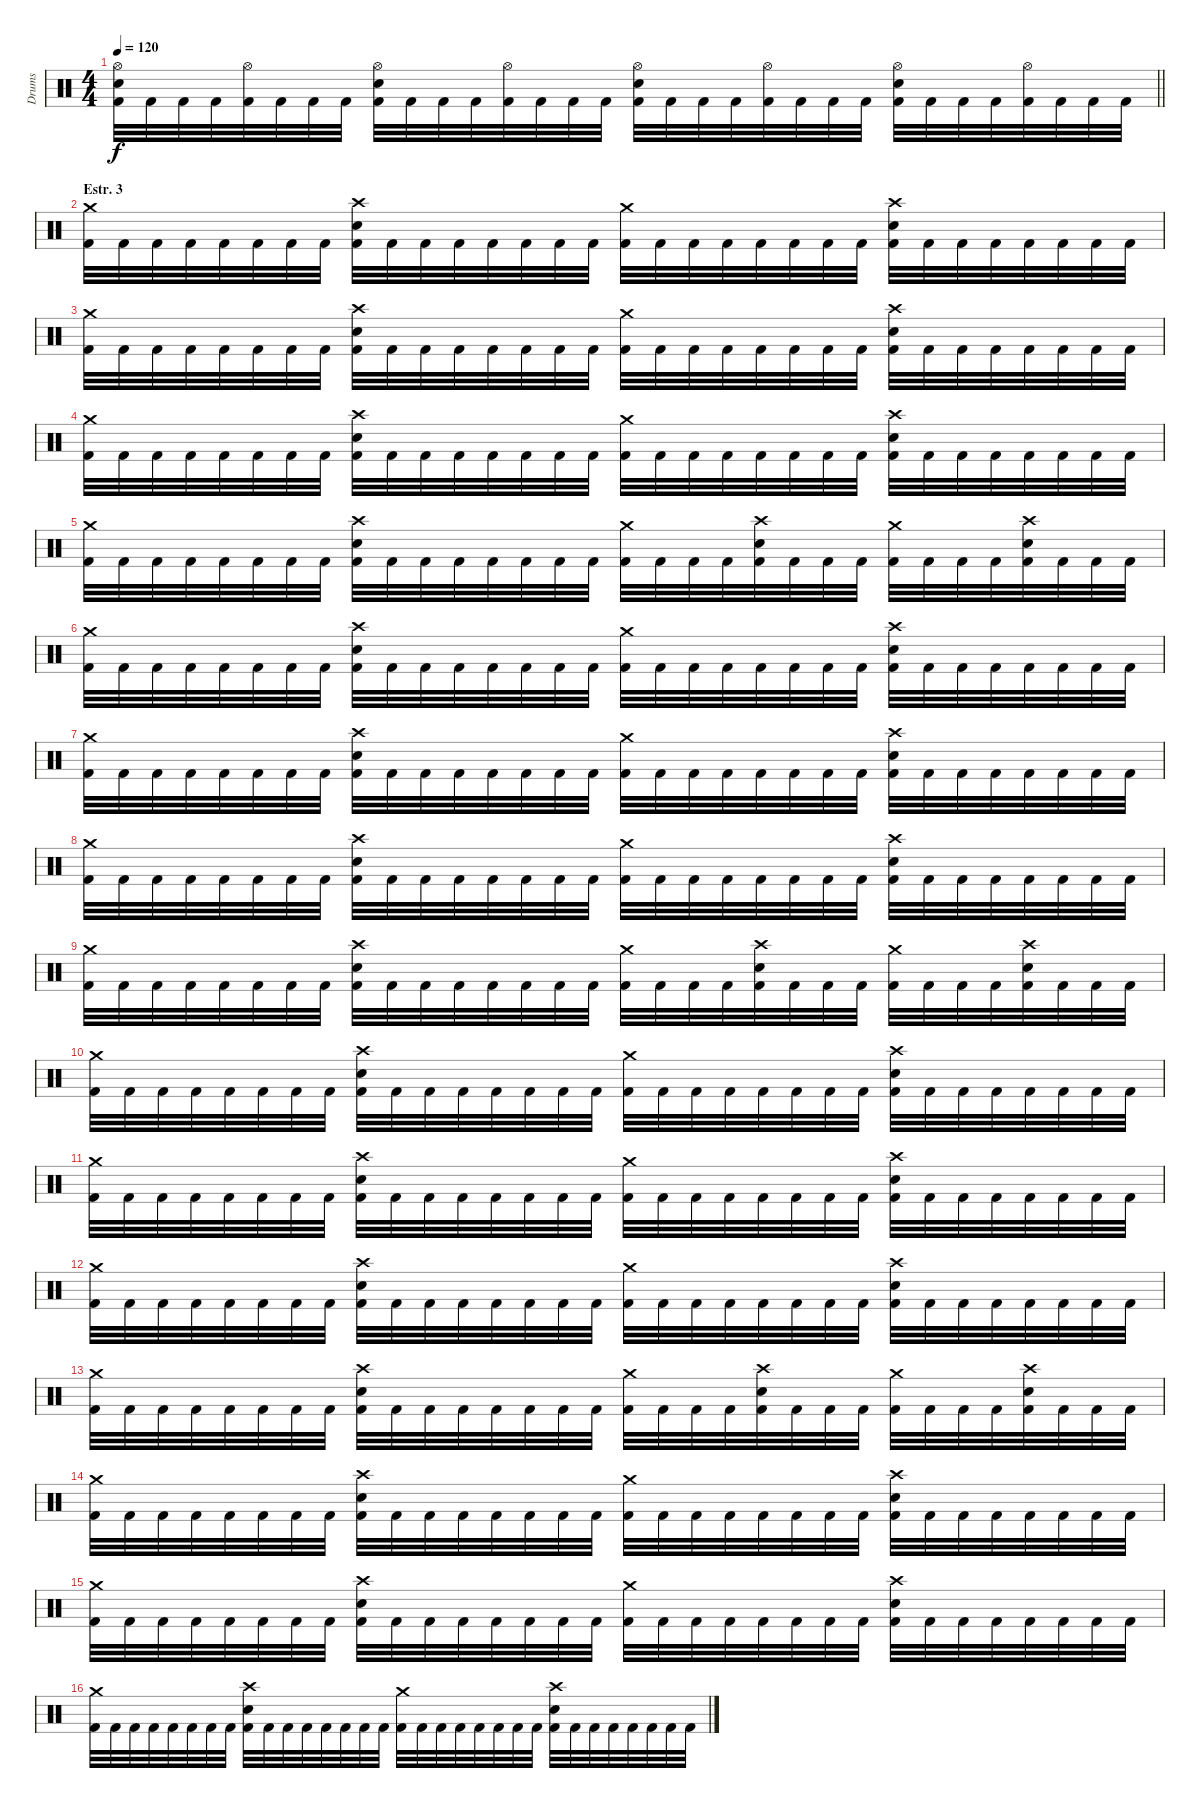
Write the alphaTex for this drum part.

\track ("Drums" "Drums") {instrument percussion}
\staff {score}
\articulation defaults
\ts (4 4)
\tempo 120
\clef neutral
\barLineRight lightlight
\ks c
("Kick (hit) 2" "Electric Snare (hit)" "Hi-Hat (open)").32{dy f} "Kick (hit) 2".32 "Kick (hit) 2".32 "Kick (hit) 2".32 ("Kick (hit) 2" "Hi-Hat (open)").32 "Kick (hit) 2".32 "Kick (hit) 2".32 "Kick (hit) 2".32 ("Kick (hit) 2" "Electric Snare (hit)" "Hi-Hat (open)").32 "Kick (hit) 2".32 "Kick (hit) 2".32 "Kick (hit) 2".32 ("Kick (hit) 2" "Hi-Hat (open)").32 "Kick (hit) 2".32 "Kick (hit) 2".32 "Kick (hit) 2".32 ("Kick (hit) 2" "Electric Snare (hit)" "Hi-Hat (open)").32 "Kick (hit) 2".32 "Kick (hit) 2".32 "Kick (hit) 2".32 ("Kick (hit) 2" "Hi-Hat (open)").32 "Kick (hit) 2".32 "Kick (hit) 2".32 "Kick (hit) 2".32 ("Kick (hit) 2" "Electric Snare (hit)" "Hi-Hat (open)").32 "Kick (hit) 2".32 "Kick (hit) 2".32 "Kick (hit) 2".32 ("Kick (hit) 2" "Hi-Hat (open)").32 "Kick (hit) 2".32 "Kick (hit) 2".32 "Kick (hit) 2".32 |
\section ("" "Estr. 3")
("Kick (hit) 2" "Crash medium (hit)").32 "Kick (hit) 2".32 "Kick (hit) 2".32 "Kick (hit) 2".32 "Kick (hit) 2".32 "Kick (hit) 2".32 "Kick (hit) 2".32 "Kick (hit) 2".32 ("Kick (hit) 2" "Electric Snare (hit)" "Crash high (hit)").32 "Kick (hit) 2".32 "Kick (hit) 2".32 "Kick (hit) 2".32 "Kick (hit) 2".32 "Kick (hit) 2".32 "Kick (hit) 2".32 "Kick (hit) 2".32 ("Kick (hit) 2" "Crash medium (hit)").32 "Kick (hit) 2".32 "Kick (hit) 2".32 "Kick (hit) 2".32 "Kick (hit) 2".32 "Kick (hit) 2".32 "Kick (hit) 2".32 "Kick (hit) 2".32 ("Kick (hit) 2" "Electric Snare (hit)" "Crash high (hit)").32 "Kick (hit) 2".32 "Kick (hit) 2".32 "Kick (hit) 2".32 "Kick (hit) 2".32 "Kick (hit) 2".32 "Kick (hit) 2".32 "Kick (hit) 2".32 |
("Kick (hit) 2" "Crash medium (hit)").32 "Kick (hit) 2".32 "Kick (hit) 2".32 "Kick (hit) 2".32 "Kick (hit) 2".32 "Kick (hit) 2".32 "Kick (hit) 2".32 "Kick (hit) 2".32 ("Kick (hit) 2" "Electric Snare (hit)" "Crash high (hit)").32 "Kick (hit) 2".32 "Kick (hit) 2".32 "Kick (hit) 2".32 "Kick (hit) 2".32 "Kick (hit) 2".32 "Kick (hit) 2".32 "Kick (hit) 2".32 ("Kick (hit) 2" "Crash medium (hit)").32 "Kick (hit) 2".32 "Kick (hit) 2".32 "Kick (hit) 2".32 "Kick (hit) 2".32 "Kick (hit) 2".32 "Kick (hit) 2".32 "Kick (hit) 2".32 ("Kick (hit) 2" "Electric Snare (hit)" "Crash high (hit)").32 "Kick (hit) 2".32 "Kick (hit) 2".32 "Kick (hit) 2".32 "Kick (hit) 2".32 "Kick (hit) 2".32 "Kick (hit) 2".32 "Kick (hit) 2".32 |
("Kick (hit) 2" "Crash medium (hit)").32 "Kick (hit) 2".32 "Kick (hit) 2".32 "Kick (hit) 2".32 "Kick (hit) 2".32 "Kick (hit) 2".32 "Kick (hit) 2".32 "Kick (hit) 2".32 ("Kick (hit) 2" "Electric Snare (hit)" "Crash high (hit)").32 "Kick (hit) 2".32 "Kick (hit) 2".32 "Kick (hit) 2".32 "Kick (hit) 2".32 "Kick (hit) 2".32 "Kick (hit) 2".32 "Kick (hit) 2".32 ("Kick (hit) 2" "Crash medium (hit)").32 "Kick (hit) 2".32 "Kick (hit) 2".32 "Kick (hit) 2".32 "Kick (hit) 2".32 "Kick (hit) 2".32 "Kick (hit) 2".32 "Kick (hit) 2".32 ("Kick (hit) 2" "Electric Snare (hit)" "Crash high (hit)").32 "Kick (hit) 2".32 "Kick (hit) 2".32 "Kick (hit) 2".32 "Kick (hit) 2".32 "Kick (hit) 2".32 "Kick (hit) 2".32 "Kick (hit) 2".32 |
("Kick (hit) 2" "Crash medium (hit)").32 "Kick (hit) 2".32 "Kick (hit) 2".32 "Kick (hit) 2".32 "Kick (hit) 2".32 "Kick (hit) 2".32 "Kick (hit) 2".32 "Kick (hit) 2".32 ("Kick (hit) 2" "Electric Snare (hit)" "Crash high (hit)").32 "Kick (hit) 2".32 "Kick (hit) 2".32 "Kick (hit) 2".32 "Kick (hit) 2".32 "Kick (hit) 2".32 "Kick (hit) 2".32 "Kick (hit) 2".32 ("Kick (hit) 2" "Crash medium (hit)").32 "Kick (hit) 2".32 "Kick (hit) 2".32 "Kick (hit) 2".32 ("Kick (hit) 2" "Electric Snare (hit)" "Crash high (hit)").32 "Kick (hit) 2".32 "Kick (hit) 2".32 "Kick (hit) 2".32 ("Kick (hit) 2" "Crash medium (hit)").32 "Kick (hit) 2".32 "Kick (hit) 2".32 "Kick (hit) 2".32 ("Kick (hit) 2" "Electric Snare (hit)" "Crash high (hit)").32 "Kick (hit) 2".32 "Kick (hit) 2".32 "Kick (hit) 2".32 |
("Kick (hit) 2" "Crash medium (hit)").32 "Kick (hit) 2".32 "Kick (hit) 2".32 "Kick (hit) 2".32 "Kick (hit) 2".32 "Kick (hit) 2".32 "Kick (hit) 2".32 "Kick (hit) 2".32 ("Kick (hit) 2" "Electric Snare (hit)" "Crash high (hit)").32 "Kick (hit) 2".32 "Kick (hit) 2".32 "Kick (hit) 2".32 "Kick (hit) 2".32 "Kick (hit) 2".32 "Kick (hit) 2".32 "Kick (hit) 2".32 ("Kick (hit) 2" "Crash medium (hit)").32 "Kick (hit) 2".32 "Kick (hit) 2".32 "Kick (hit) 2".32 "Kick (hit) 2".32 "Kick (hit) 2".32 "Kick (hit) 2".32 "Kick (hit) 2".32 ("Kick (hit) 2" "Electric Snare (hit)" "Crash high (hit)").32 "Kick (hit) 2".32 "Kick (hit) 2".32 "Kick (hit) 2".32 "Kick (hit) 2".32 "Kick (hit) 2".32 "Kick (hit) 2".32 "Kick (hit) 2".32 |
("Kick (hit) 2" "Crash medium (hit)").32 "Kick (hit) 2".32 "Kick (hit) 2".32 "Kick (hit) 2".32 "Kick (hit) 2".32 "Kick (hit) 2".32 "Kick (hit) 2".32 "Kick (hit) 2".32 ("Kick (hit) 2" "Electric Snare (hit)" "Crash high (hit)").32 "Kick (hit) 2".32 "Kick (hit) 2".32 "Kick (hit) 2".32 "Kick (hit) 2".32 "Kick (hit) 2".32 "Kick (hit) 2".32 "Kick (hit) 2".32 ("Kick (hit) 2" "Crash medium (hit)").32 "Kick (hit) 2".32 "Kick (hit) 2".32 "Kick (hit) 2".32 "Kick (hit) 2".32 "Kick (hit) 2".32 "Kick (hit) 2".32 "Kick (hit) 2".32 ("Kick (hit) 2" "Electric Snare (hit)" "Crash high (hit)").32 "Kick (hit) 2".32 "Kick (hit) 2".32 "Kick (hit) 2".32 "Kick (hit) 2".32 "Kick (hit) 2".32 "Kick (hit) 2".32 "Kick (hit) 2".32 |
("Kick (hit) 2" "Crash medium (hit)").32 "Kick (hit) 2".32 "Kick (hit) 2".32 "Kick (hit) 2".32 "Kick (hit) 2".32 "Kick (hit) 2".32 "Kick (hit) 2".32 "Kick (hit) 2".32 ("Kick (hit) 2" "Electric Snare (hit)" "Crash high (hit)").32 "Kick (hit) 2".32 "Kick (hit) 2".32 "Kick (hit) 2".32 "Kick (hit) 2".32 "Kick (hit) 2".32 "Kick (hit) 2".32 "Kick (hit) 2".32 ("Kick (hit) 2" "Crash medium (hit)").32 "Kick (hit) 2".32 "Kick (hit) 2".32 "Kick (hit) 2".32 "Kick (hit) 2".32 "Kick (hit) 2".32 "Kick (hit) 2".32 "Kick (hit) 2".32 ("Kick (hit) 2" "Electric Snare (hit)" "Crash high (hit)").32 "Kick (hit) 2".32 "Kick (hit) 2".32 "Kick (hit) 2".32 "Kick (hit) 2".32 "Kick (hit) 2".32 "Kick (hit) 2".32 "Kick (hit) 2".32 |
("Kick (hit) 2" "Crash medium (hit)").32 "Kick (hit) 2".32 "Kick (hit) 2".32 "Kick (hit) 2".32 "Kick (hit) 2".32 "Kick (hit) 2".32 "Kick (hit) 2".32 "Kick (hit) 2".32 ("Kick (hit) 2" "Electric Snare (hit)" "Crash high (hit)").32 "Kick (hit) 2".32 "Kick (hit) 2".32 "Kick (hit) 2".32 "Kick (hit) 2".32 "Kick (hit) 2".32 "Kick (hit) 2".32 "Kick (hit) 2".32 ("Kick (hit) 2" "Crash medium (hit)").32 "Kick (hit) 2".32 "Kick (hit) 2".32 "Kick (hit) 2".32 ("Kick (hit) 2" "Electric Snare (hit)" "Crash high (hit)").32 "Kick (hit) 2".32 "Kick (hit) 2".32 "Kick (hit) 2".32 ("Kick (hit) 2" "Crash medium (hit)").32 "Kick (hit) 2".32 "Kick (hit) 2".32 "Kick (hit) 2".32 ("Kick (hit) 2" "Electric Snare (hit)" "Crash high (hit)").32 "Kick (hit) 2".32 "Kick (hit) 2".32 "Kick (hit) 2".32 |
("Kick (hit) 2" "Crash medium (hit)").32 "Kick (hit) 2".32 "Kick (hit) 2".32 "Kick (hit) 2".32 "Kick (hit) 2".32 "Kick (hit) 2".32 "Kick (hit) 2".32 "Kick (hit) 2".32 ("Kick (hit) 2" "Electric Snare (hit)" "Crash high (hit)").32 "Kick (hit) 2".32 "Kick (hit) 2".32 "Kick (hit) 2".32 "Kick (hit) 2".32 "Kick (hit) 2".32 "Kick (hit) 2".32 "Kick (hit) 2".32 ("Kick (hit) 2" "Crash medium (hit)").32 "Kick (hit) 2".32 "Kick (hit) 2".32 "Kick (hit) 2".32 "Kick (hit) 2".32 "Kick (hit) 2".32 "Kick (hit) 2".32 "Kick (hit) 2".32 ("Kick (hit) 2" "Electric Snare (hit)" "Crash high (hit)").32 "Kick (hit) 2".32 "Kick (hit) 2".32 "Kick (hit) 2".32 "Kick (hit) 2".32 "Kick (hit) 2".32 "Kick (hit) 2".32 "Kick (hit) 2".32 |
("Kick (hit) 2" "Crash medium (hit)").32 "Kick (hit) 2".32 "Kick (hit) 2".32 "Kick (hit) 2".32 "Kick (hit) 2".32 "Kick (hit) 2".32 "Kick (hit) 2".32 "Kick (hit) 2".32 ("Kick (hit) 2" "Electric Snare (hit)" "Crash high (hit)").32 "Kick (hit) 2".32 "Kick (hit) 2".32 "Kick (hit) 2".32 "Kick (hit) 2".32 "Kick (hit) 2".32 "Kick (hit) 2".32 "Kick (hit) 2".32 ("Kick (hit) 2" "Crash medium (hit)").32 "Kick (hit) 2".32 "Kick (hit) 2".32 "Kick (hit) 2".32 "Kick (hit) 2".32 "Kick (hit) 2".32 "Kick (hit) 2".32 "Kick (hit) 2".32 ("Kick (hit) 2" "Electric Snare (hit)" "Crash high (hit)").32 "Kick (hit) 2".32 "Kick (hit) 2".32 "Kick (hit) 2".32 "Kick (hit) 2".32 "Kick (hit) 2".32 "Kick (hit) 2".32 "Kick (hit) 2".32 |
("Kick (hit) 2" "Crash medium (hit)").32 "Kick (hit) 2".32 "Kick (hit) 2".32 "Kick (hit) 2".32 "Kick (hit) 2".32 "Kick (hit) 2".32 "Kick (hit) 2".32 "Kick (hit) 2".32 ("Kick (hit) 2" "Electric Snare (hit)" "Crash high (hit)").32 "Kick (hit) 2".32 "Kick (hit) 2".32 "Kick (hit) 2".32 "Kick (hit) 2".32 "Kick (hit) 2".32 "Kick (hit) 2".32 "Kick (hit) 2".32 ("Kick (hit) 2" "Crash medium (hit)").32 "Kick (hit) 2".32 "Kick (hit) 2".32 "Kick (hit) 2".32 "Kick (hit) 2".32 "Kick (hit) 2".32 "Kick (hit) 2".32 "Kick (hit) 2".32 ("Kick (hit) 2" "Electric Snare (hit)" "Crash high (hit)").32 "Kick (hit) 2".32 "Kick (hit) 2".32 "Kick (hit) 2".32 "Kick (hit) 2".32 "Kick (hit) 2".32 "Kick (hit) 2".32 "Kick (hit) 2".32 |
("Kick (hit) 2" "Crash medium (hit)").32 "Kick (hit) 2".32 "Kick (hit) 2".32 "Kick (hit) 2".32 "Kick (hit) 2".32 "Kick (hit) 2".32 "Kick (hit) 2".32 "Kick (hit) 2".32 ("Kick (hit) 2" "Electric Snare (hit)" "Crash high (hit)").32 "Kick (hit) 2".32 "Kick (hit) 2".32 "Kick (hit) 2".32 "Kick (hit) 2".32 "Kick (hit) 2".32 "Kick (hit) 2".32 "Kick (hit) 2".32 ("Kick (hit) 2" "Crash medium (hit)").32 "Kick (hit) 2".32 "Kick (hit) 2".32 "Kick (hit) 2".32 ("Kick (hit) 2" "Electric Snare (hit)" "Crash high (hit)").32 "Kick (hit) 2".32 "Kick (hit) 2".32 "Kick (hit) 2".32 ("Kick (hit) 2" "Crash medium (hit)").32 "Kick (hit) 2".32 "Kick (hit) 2".32 "Kick (hit) 2".32 ("Kick (hit) 2" "Electric Snare (hit)" "Crash high (hit)").32 "Kick (hit) 2".32 "Kick (hit) 2".32 "Kick (hit) 2".32 |
("Kick (hit) 2" "Crash medium (hit)").32 "Kick (hit) 2".32 "Kick (hit) 2".32 "Kick (hit) 2".32 "Kick (hit) 2".32 "Kick (hit) 2".32 "Kick (hit) 2".32 "Kick (hit) 2".32 ("Kick (hit) 2" "Electric Snare (hit)" "Crash high (hit)").32 "Kick (hit) 2".32 "Kick (hit) 2".32 "Kick (hit) 2".32 "Kick (hit) 2".32 "Kick (hit) 2".32 "Kick (hit) 2".32 "Kick (hit) 2".32 ("Kick (hit) 2" "Crash medium (hit)").32 "Kick (hit) 2".32 "Kick (hit) 2".32 "Kick (hit) 2".32 "Kick (hit) 2".32 "Kick (hit) 2".32 "Kick (hit) 2".32 "Kick (hit) 2".32 ("Kick (hit) 2" "Electric Snare (hit)" "Crash high (hit)").32 "Kick (hit) 2".32 "Kick (hit) 2".32 "Kick (hit) 2".32 "Kick (hit) 2".32 "Kick (hit) 2".32 "Kick (hit) 2".32 "Kick (hit) 2".32 |
("Kick (hit) 2" "Crash medium (hit)").32 "Kick (hit) 2".32 "Kick (hit) 2".32 "Kick (hit) 2".32 "Kick (hit) 2".32 "Kick (hit) 2".32 "Kick (hit) 2".32 "Kick (hit) 2".32 ("Kick (hit) 2" "Electric Snare (hit)" "Crash high (hit)").32 "Kick (hit) 2".32 "Kick (hit) 2".32 "Kick (hit) 2".32 "Kick (hit) 2".32 "Kick (hit) 2".32 "Kick (hit) 2".32 "Kick (hit) 2".32 ("Kick (hit) 2" "Crash medium (hit)").32 "Kick (hit) 2".32 "Kick (hit) 2".32 "Kick (hit) 2".32 "Kick (hit) 2".32 "Kick (hit) 2".32 "Kick (hit) 2".32 "Kick (hit) 2".32 ("Kick (hit) 2" "Electric Snare (hit)" "Crash high (hit)").32 "Kick (hit) 2".32 "Kick (hit) 2".32 "Kick (hit) 2".32 "Kick (hit) 2".32 "Kick (hit) 2".32 "Kick (hit) 2".32 "Kick (hit) 2".32 |
("Kick (hit) 2" "Crash medium (hit)").32 "Kick (hit) 2".32 "Kick (hit) 2".32 "Kick (hit) 2".32 "Kick (hit) 2".32 "Kick (hit) 2".32 "Kick (hit) 2".32 "Kick (hit) 2".32 ("Kick (hit) 2" "Electric Snare (hit)" "Crash high (hit)").32 "Kick (hit) 2".32 "Kick (hit) 2".32 "Kick (hit) 2".32 "Kick (hit) 2".32 "Kick (hit) 2".32 "Kick (hit) 2".32 "Kick (hit) 2".32 ("Kick (hit) 2" "Crash medium (hit)").32 "Kick (hit) 2".32 "Kick (hit) 2".32 "Kick (hit) 2".32 "Kick (hit) 2".32 "Kick (hit) 2".32 "Kick (hit) 2".32 "Kick (hit) 2".32 ("Kick (hit) 2" "Electric Snare (hit)" "Crash high (hit)").32 "Kick (hit) 2".32 "Kick (hit) 2".32 "Kick (hit) 2".32 "Kick (hit) 2".32 "Kick (hit) 2".32 "Kick (hit) 2".32 "Kick (hit) 2".32
